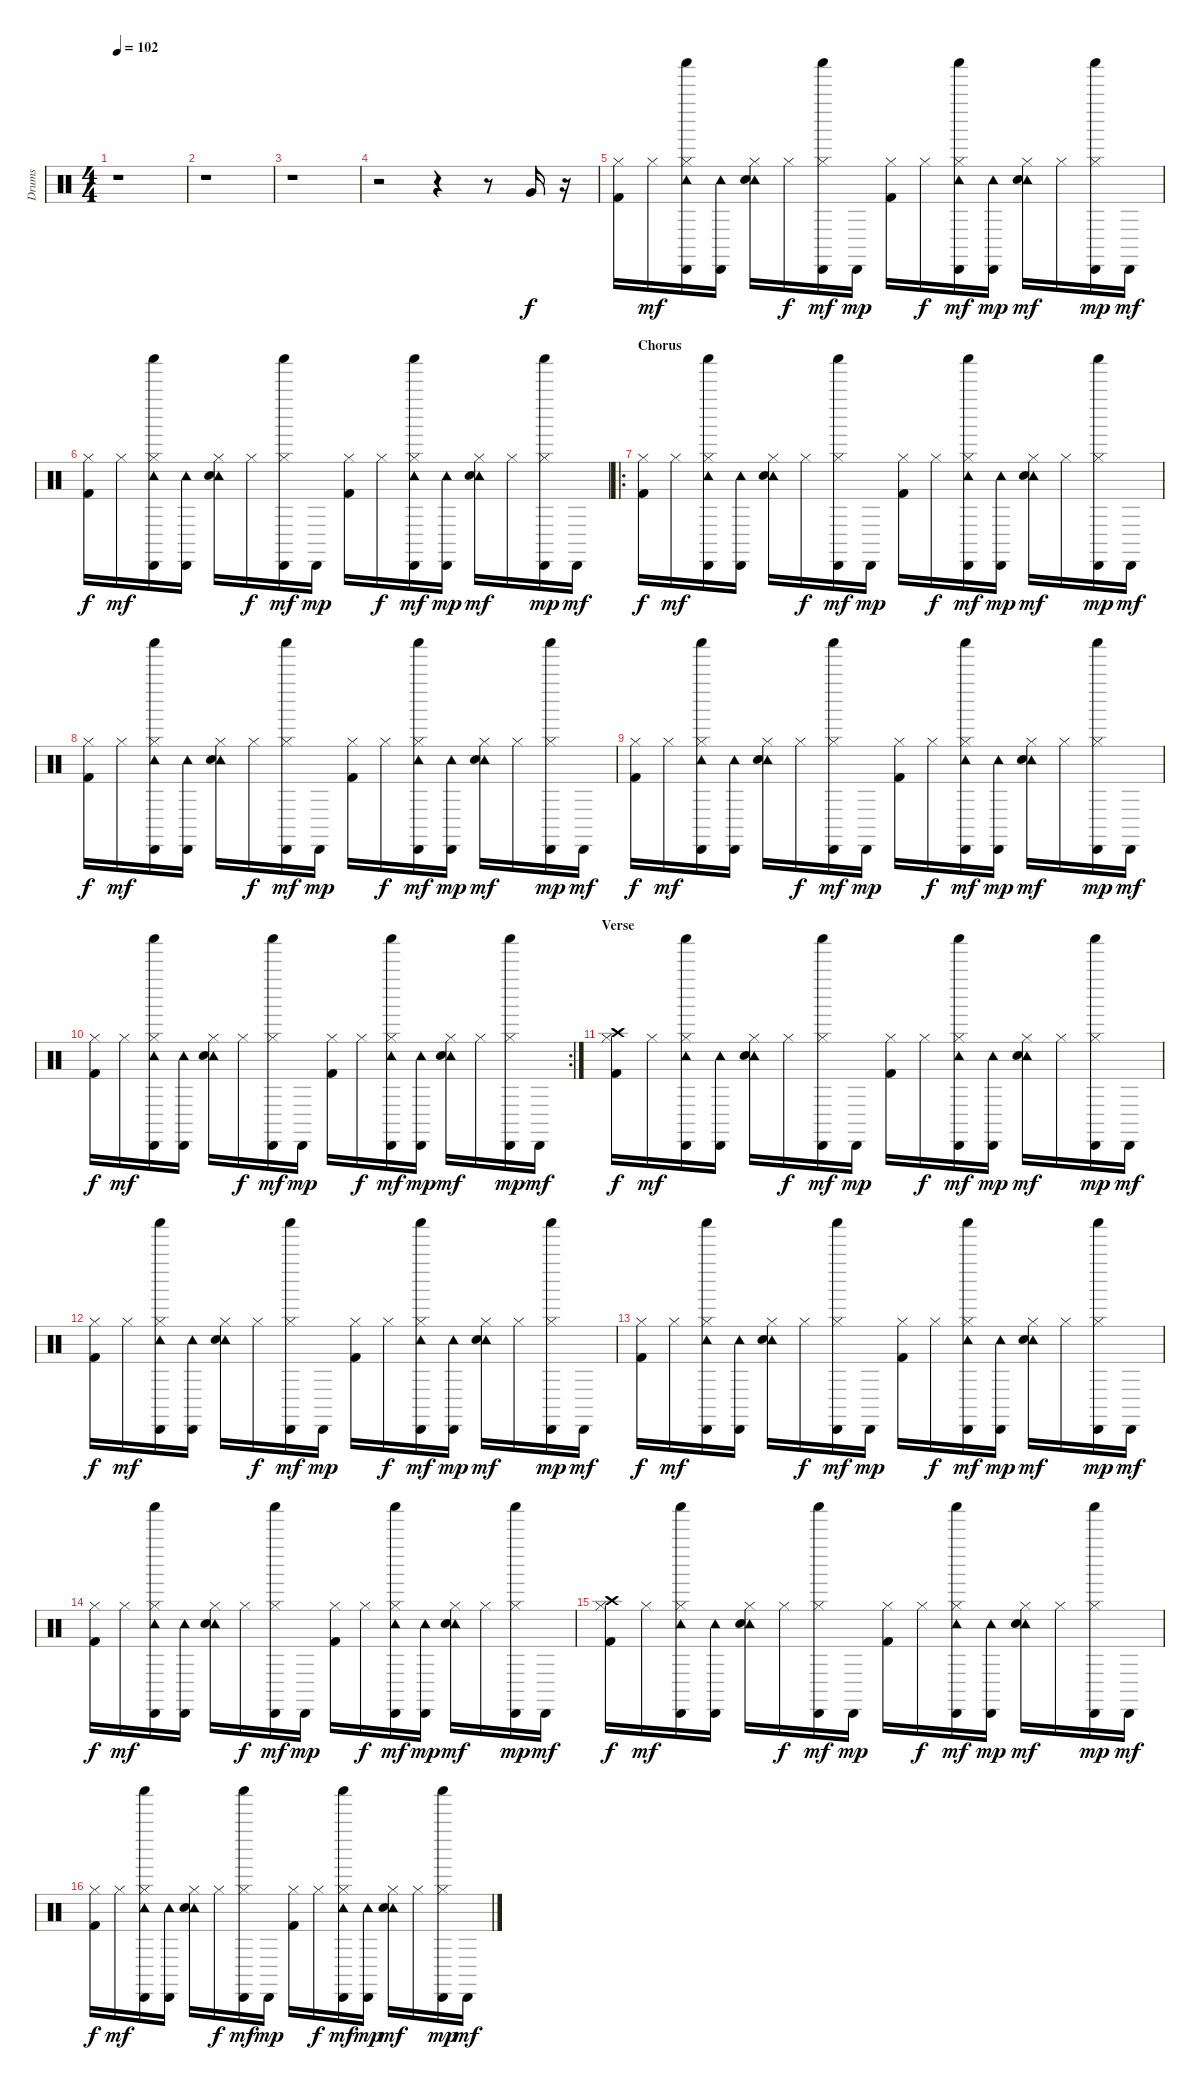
\track ("Drums" "Drums") {instrument percussion}
\staff {score}
\articulation defaults
\ts (4 4)
\tempo 102
\clef neutral
\ks c
r.1{dy f} |
r.1 |
r.1 |
r.2 r.4 r.8 "Very Low Tom (hit)".16 r.16 |
("Hi-Hat (closed)" "Kick (hit) 2").16 "Hi-Hat (closed)".16{dy mf} ("Hi-Hat (closed)" "Tambourine (hit)" "Cabasa (hit)" "Shaker (hit)").16 ("Tambourine (hit)" "Cabasa (hit)").16 ("Hi-Hat (closed)" "Tambourine (hit)" "Electric Snare (hit)").16 "Hi-Hat (closed)".16{dy f} ("Hi-Hat (closed)" "Cabasa (hit)" "Shaker (hit)").16{dy mf} "Cabasa (hit)".16{dy mp} ("Hi-Hat (closed)" "Kick (hit) 2").16 "Hi-Hat (closed)".16{dy f} ("Hi-Hat (closed)" "Tambourine (hit)" "Cabasa (hit)" "Shaker (hit)").16{dy mf} ("Tambourine (hit)" "Cabasa (hit)").16{dy mp} ("Hi-Hat (closed)" "Tambourine (hit)" "Electric Snare (hit)").16{dy mf} "Hi-Hat (closed)".16 ("Hi-Hat (closed)" "Cabasa (hit)" "Shaker (hit)").16{dy mp} "Cabasa (hit)".16{dy mf} |
("Hi-Hat (closed)" "Kick (hit) 2").16{dy f} "Hi-Hat (closed)".16{dy mf} ("Hi-Hat (closed)" "Tambourine (hit)" "Cabasa (hit)" "Shaker (hit)").16 ("Tambourine (hit)" "Cabasa (hit)").16 ("Hi-Hat (closed)" "Tambourine (hit)" "Electric Snare (hit)").16 "Hi-Hat (closed)".16{dy f} ("Hi-Hat (closed)" "Cabasa (hit)" "Shaker (hit)").16{dy mf} "Cabasa (hit)".16{dy mp} ("Hi-Hat (closed)" "Kick (hit) 2").16 "Hi-Hat (closed)".16{dy f} ("Hi-Hat (closed)" "Tambourine (hit)" "Cabasa (hit)" "Shaker (hit)").16{dy mf} ("Tambourine (hit)" "Cabasa (hit)").16{dy mp} ("Hi-Hat (closed)" "Tambourine (hit)" "Electric Snare (hit)").16{dy mf} "Hi-Hat (closed)".16 ("Hi-Hat (closed)" "Cabasa (hit)" "Shaker (hit)").16{dy mp} "Cabasa (hit)".16{dy mf} |
\ro
\section ("" "Chorus")
("Hi-Hat (closed)" "Kick (hit) 2").16{dy f} "Hi-Hat (closed)".16{dy mf} ("Hi-Hat (closed)" "Tambourine (hit)" "Cabasa (hit)" "Shaker (hit)").16 ("Tambourine (hit)" "Cabasa (hit)").16 ("Hi-Hat (closed)" "Tambourine (hit)" "Electric Snare (hit)").16 "Hi-Hat (closed)".16{dy f} ("Hi-Hat (closed)" "Cabasa (hit)" "Shaker (hit)").16{dy mf} "Cabasa (hit)".16{dy mp} ("Hi-Hat (closed)" "Kick (hit) 2").16 "Hi-Hat (closed)".16{dy f} ("Hi-Hat (closed)" "Tambourine (hit)" "Cabasa (hit)" "Shaker (hit)").16{dy mf} ("Tambourine (hit)" "Cabasa (hit)").16{dy mp} ("Hi-Hat (closed)" "Tambourine (hit)" "Electric Snare (hit)").16{dy mf} "Hi-Hat (closed)".16 ("Hi-Hat (closed)" "Cabasa (hit)" "Shaker (hit)").16{dy mp} "Cabasa (hit)".16{dy mf} |
("Hi-Hat (closed)" "Kick (hit) 2").16{dy f} "Hi-Hat (closed)".16{dy mf} ("Hi-Hat (closed)" "Tambourine (hit)" "Cabasa (hit)" "Shaker (hit)").16 ("Tambourine (hit)" "Cabasa (hit)").16 ("Hi-Hat (closed)" "Tambourine (hit)" "Electric Snare (hit)").16 "Hi-Hat (closed)".16{dy f} ("Hi-Hat (closed)" "Cabasa (hit)" "Shaker (hit)").16{dy mf} "Cabasa (hit)".16{dy mp} ("Hi-Hat (closed)" "Kick (hit) 2").16 "Hi-Hat (closed)".16{dy f} ("Hi-Hat (closed)" "Tambourine (hit)" "Cabasa (hit)" "Shaker (hit)").16{dy mf} ("Tambourine (hit)" "Cabasa (hit)").16{dy mp} ("Hi-Hat (closed)" "Tambourine (hit)" "Electric Snare (hit)").16{dy mf} "Hi-Hat (closed)".16 ("Hi-Hat (closed)" "Cabasa (hit)" "Shaker (hit)").16{dy mp} "Cabasa (hit)".16{dy mf} |
("Hi-Hat (closed)" "Kick (hit) 2").16{dy f} "Hi-Hat (closed)".16{dy mf} ("Hi-Hat (closed)" "Tambourine (hit)" "Cabasa (hit)" "Shaker (hit)").16 ("Tambourine (hit)" "Cabasa (hit)").16 ("Hi-Hat (closed)" "Tambourine (hit)" "Electric Snare (hit)").16 "Hi-Hat (closed)".16{dy f} ("Hi-Hat (closed)" "Cabasa (hit)" "Shaker (hit)").16{dy mf} "Cabasa (hit)".16{dy mp} ("Hi-Hat (closed)" "Kick (hit) 2").16 "Hi-Hat (closed)".16{dy f} ("Hi-Hat (closed)" "Tambourine (hit)" "Cabasa (hit)" "Shaker (hit)").16{dy mf} ("Tambourine (hit)" "Cabasa (hit)").16{dy mp} ("Hi-Hat (closed)" "Tambourine (hit)" "Electric Snare (hit)").16{dy mf} "Hi-Hat (closed)".16 ("Hi-Hat (closed)" "Cabasa (hit)" "Shaker (hit)").16{dy mp} "Cabasa (hit)".16{dy mf} |
\rc 2
("Hi-Hat (closed)" "Kick (hit) 2").16{dy f} "Hi-Hat (closed)".16{dy mf} ("Hi-Hat (closed)" "Tambourine (hit)" "Cabasa (hit)" "Shaker (hit)").16 ("Tambourine (hit)" "Cabasa (hit)").16 ("Hi-Hat (closed)" "Tambourine (hit)" "Electric Snare (hit)").16 "Hi-Hat (closed)".16{dy f} ("Hi-Hat (closed)" "Cabasa (hit)" "Shaker (hit)").16{dy mf} "Cabasa (hit)".16{dy mp} ("Hi-Hat (closed)" "Kick (hit) 2").16 "Hi-Hat (closed)".16{dy f} ("Hi-Hat (closed)" "Tambourine (hit)" "Cabasa (hit)" "Shaker (hit)").16{dy mf} ("Tambourine (hit)" "Cabasa (hit)").16{dy mp} ("Hi-Hat (closed)" "Tambourine (hit)" "Electric Snare (hit)").16{dy mf} "Hi-Hat (closed)".16 ("Hi-Hat (closed)" "Cabasa (hit)" "Shaker (hit)").16{dy mp} "Cabasa (hit)".16{dy mf} |
\section ("" "Verse")
("Hi-Hat (closed)" "Crash high (hit)" "Kick (hit) 2").16{dy f} "Hi-Hat (closed)".16{dy mf} ("Hi-Hat (closed)" "Tambourine (hit)" "Cabasa (hit)" "Shaker (hit)").16 ("Tambourine (hit)" "Cabasa (hit)").16 ("Hi-Hat (closed)" "Tambourine (hit)" "Electric Snare (hit)").16 "Hi-Hat (closed)".16{dy f} ("Hi-Hat (closed)" "Cabasa (hit)" "Shaker (hit)").16{dy mf} "Cabasa (hit)".16{dy mp} ("Hi-Hat (closed)" "Kick (hit) 2").16 "Hi-Hat (closed)".16{dy f} ("Hi-Hat (closed)" "Tambourine (hit)" "Cabasa (hit)" "Shaker (hit)").16{dy mf} ("Tambourine (hit)" "Cabasa (hit)").16{dy mp} ("Hi-Hat (closed)" "Tambourine (hit)" "Electric Snare (hit)").16{dy mf} "Hi-Hat (closed)".16 ("Hi-Hat (closed)" "Cabasa (hit)" "Shaker (hit)").16{dy mp} "Cabasa (hit)".16{dy mf} |
("Hi-Hat (closed)" "Kick (hit) 2").16{dy f} "Hi-Hat (closed)".16{dy mf} ("Hi-Hat (closed)" "Tambourine (hit)" "Cabasa (hit)" "Shaker (hit)").16 ("Tambourine (hit)" "Cabasa (hit)").16 ("Hi-Hat (closed)" "Tambourine (hit)" "Electric Snare (hit)").16 "Hi-Hat (closed)".16{dy f} ("Hi-Hat (closed)" "Cabasa (hit)" "Shaker (hit)").16{dy mf} "Cabasa (hit)".16{dy mp} ("Hi-Hat (closed)" "Kick (hit) 2").16 "Hi-Hat (closed)".16{dy f} ("Hi-Hat (closed)" "Tambourine (hit)" "Cabasa (hit)" "Shaker (hit)").16{dy mf} ("Tambourine (hit)" "Cabasa (hit)").16{dy mp} ("Hi-Hat (closed)" "Tambourine (hit)" "Electric Snare (hit)").16{dy mf} "Hi-Hat (closed)".16 ("Hi-Hat (closed)" "Cabasa (hit)" "Shaker (hit)").16{dy mp} "Cabasa (hit)".16{dy mf} |
("Hi-Hat (closed)" "Kick (hit) 2").16{dy f} "Hi-Hat (closed)".16{dy mf} ("Hi-Hat (closed)" "Tambourine (hit)" "Cabasa (hit)" "Shaker (hit)").16 ("Tambourine (hit)" "Cabasa (hit)").16 ("Hi-Hat (closed)" "Tambourine (hit)" "Electric Snare (hit)").16 "Hi-Hat (closed)".16{dy f} ("Hi-Hat (closed)" "Cabasa (hit)" "Shaker (hit)").16{dy mf} "Cabasa (hit)".16{dy mp} ("Hi-Hat (closed)" "Kick (hit) 2").16 "Hi-Hat (closed)".16{dy f} ("Hi-Hat (closed)" "Tambourine (hit)" "Cabasa (hit)" "Shaker (hit)").16{dy mf} ("Tambourine (hit)" "Cabasa (hit)").16{dy mp} ("Hi-Hat (closed)" "Tambourine (hit)" "Electric Snare (hit)").16{dy mf} "Hi-Hat (closed)".16 ("Hi-Hat (closed)" "Cabasa (hit)" "Shaker (hit)").16{dy mp} "Cabasa (hit)".16{dy mf} |
("Hi-Hat (closed)" "Kick (hit) 2").16{dy f} "Hi-Hat (closed)".16{dy mf} ("Hi-Hat (closed)" "Tambourine (hit)" "Cabasa (hit)" "Shaker (hit)").16 ("Tambourine (hit)" "Cabasa (hit)").16 ("Hi-Hat (closed)" "Tambourine (hit)" "Electric Snare (hit)").16 "Hi-Hat (closed)".16{dy f} ("Hi-Hat (closed)" "Cabasa (hit)" "Shaker (hit)").16{dy mf} "Cabasa (hit)".16{dy mp} ("Hi-Hat (closed)" "Kick (hit) 2").16 "Hi-Hat (closed)".16{dy f} ("Hi-Hat (closed)" "Tambourine (hit)" "Cabasa (hit)" "Shaker (hit)").16{dy mf} ("Tambourine (hit)" "Cabasa (hit)").16{dy mp} ("Hi-Hat (closed)" "Tambourine (hit)" "Electric Snare (hit)").16{dy mf} "Hi-Hat (closed)".16 ("Hi-Hat (closed)" "Cabasa (hit)" "Shaker (hit)").16{dy mp} "Cabasa (hit)".16{dy mf} |
("Hi-Hat (closed)" "Crash high (hit)" "Kick (hit) 2").16{dy f} "Hi-Hat (closed)".16{dy mf} ("Hi-Hat (closed)" "Tambourine (hit)" "Cabasa (hit)" "Shaker (hit)").16 ("Tambourine (hit)" "Cabasa (hit)").16 ("Hi-Hat (closed)" "Tambourine (hit)" "Electric Snare (hit)").16 "Hi-Hat (closed)".16{dy f} ("Hi-Hat (closed)" "Cabasa (hit)" "Shaker (hit)").16{dy mf} "Cabasa (hit)".16{dy mp} ("Hi-Hat (closed)" "Kick (hit) 2").16 "Hi-Hat (closed)".16{dy f} ("Hi-Hat (closed)" "Tambourine (hit)" "Cabasa (hit)" "Shaker (hit)").16{dy mf} ("Tambourine (hit)" "Cabasa (hit)").16{dy mp} ("Hi-Hat (closed)" "Tambourine (hit)" "Electric Snare (hit)").16{dy mf} "Hi-Hat (closed)".16 ("Hi-Hat (closed)" "Cabasa (hit)" "Shaker (hit)").16{dy mp} "Cabasa (hit)".16{dy mf} |
("Hi-Hat (closed)" "Kick (hit) 2").16{dy f} "Hi-Hat (closed)".16{dy mf} ("Hi-Hat (closed)" "Tambourine (hit)" "Cabasa (hit)" "Shaker (hit)").16 ("Tambourine (hit)" "Cabasa (hit)").16 ("Hi-Hat (closed)" "Tambourine (hit)" "Electric Snare (hit)").16 "Hi-Hat (closed)".16{dy f} ("Hi-Hat (closed)" "Cabasa (hit)" "Shaker (hit)").16{dy mf} "Cabasa (hit)".16{dy mp} ("Hi-Hat (closed)" "Kick (hit) 2").16 "Hi-Hat (closed)".16{dy f} ("Hi-Hat (closed)" "Tambourine (hit)" "Cabasa (hit)" "Shaker (hit)").16{dy mf} ("Tambourine (hit)" "Cabasa (hit)").16{dy mp} ("Hi-Hat (closed)" "Tambourine (hit)" "Electric Snare (hit)").16{dy mf} "Hi-Hat (closed)".16 ("Hi-Hat (closed)" "Cabasa (hit)" "Shaker (hit)").16{dy mp} "Cabasa (hit)".16{dy mf}
